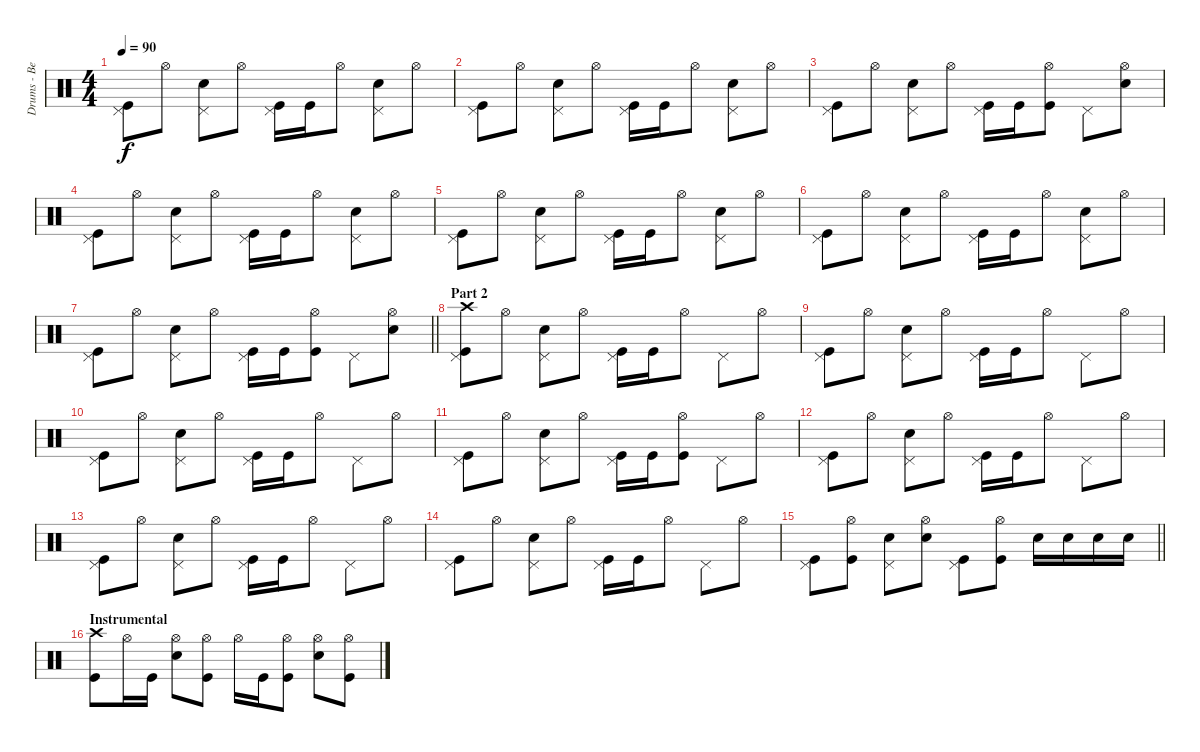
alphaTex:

\track ("Drums - Ben Johnston" "Drums - Be") {instrument percussion}
\staff {score}
\articulation defaults
\ts (4 4)
\tempo 90
\clef neutral
\ks c
("Pedal Hi-Hat (hit)" "Kick (hit)").8{dy f} "Hi-Hat (open)".8 ("Pedal Hi-Hat (hit)" "Snare (hit) 2").8 "Hi-Hat (open)".8 ("Pedal Hi-Hat (hit)" "Kick (hit)").16 "Kick (hit)".16 "Hi-Hat (open)".8 ("Pedal Hi-Hat (hit)" "Snare (hit) 2").8 "Hi-Hat (open)".8 |
("Pedal Hi-Hat (hit)" "Kick (hit)").8 "Hi-Hat (open)".8 ("Pedal Hi-Hat (hit)" "Snare (hit) 2").8 "Hi-Hat (open)".8 ("Pedal Hi-Hat (hit)" "Kick (hit)").16 "Kick (hit)".16 "Hi-Hat (open)".8 ("Pedal Hi-Hat (hit)" "Snare (hit) 2").8 "Hi-Hat (open)".8 |
("Pedal Hi-Hat (hit)" "Kick (hit)").8 "Hi-Hat (open)".8 ("Pedal Hi-Hat (hit)" "Snare (hit) 2").8 "Hi-Hat (open)".8 ("Pedal Hi-Hat (hit)" "Kick (hit)").16 "Kick (hit)".16 ("Hi-Hat (open)" "Kick (hit)").8 "Pedal Hi-Hat (hit)".8 ("Hi-Hat (open)" "Snare (hit) 2").8 |
("Pedal Hi-Hat (hit)" "Kick (hit)").8 "Hi-Hat (open)".8 ("Pedal Hi-Hat (hit)" "Snare (hit) 2").8 "Hi-Hat (open)".8 ("Pedal Hi-Hat (hit)" "Kick (hit)").16 "Kick (hit)".16 "Hi-Hat (open)".8 ("Pedal Hi-Hat (hit)" "Snare (hit) 2").8 "Hi-Hat (open)".8 |
("Pedal Hi-Hat (hit)" "Kick (hit)").8 "Hi-Hat (open)".8 ("Pedal Hi-Hat (hit)" "Snare (hit) 2").8 "Hi-Hat (open)".8 ("Pedal Hi-Hat (hit)" "Kick (hit)").16 "Kick (hit)".16 "Hi-Hat (open)".8 ("Pedal Hi-Hat (hit)" "Snare (hit) 2").8 "Hi-Hat (open)".8 |
("Pedal Hi-Hat (hit)" "Kick (hit)").8 "Hi-Hat (open)".8 ("Pedal Hi-Hat (hit)" "Snare (hit) 2").8 "Hi-Hat (open)".8 ("Pedal Hi-Hat (hit)" "Kick (hit)").16 "Kick (hit)".16 "Hi-Hat (open)".8 ("Pedal Hi-Hat (hit)" "Snare (hit) 2").8 "Hi-Hat (open)".8 |
\barLineRight lightlight
("Pedal Hi-Hat (hit)" "Kick (hit)").8 "Hi-Hat (open)".8 ("Pedal Hi-Hat (hit)" "Snare (hit) 2").8 "Hi-Hat (open)".8 ("Pedal Hi-Hat (hit)" "Kick (hit)").16 "Kick (hit)".16 ("Hi-Hat (open)" "Kick (hit)").8 "Pedal Hi-Hat (hit)".8 ("Hi-Hat (open)" "Snare (hit) 2").8 |
\section ("" "Part 2")
("Crash high (hit)" "Pedal Hi-Hat (hit)" "Kick (hit)").8 "Hi-Hat (open)".8 ("Pedal Hi-Hat (hit)" "Snare (hit) 2").8 "Hi-Hat (open)".8 ("Pedal Hi-Hat (hit)" "Kick (hit)").16 "Kick (hit)".16 "Hi-Hat (open)".8 "Pedal Hi-Hat (hit)".8 "Hi-Hat (open)".8 |
("Pedal Hi-Hat (hit)" "Kick (hit)").8 "Hi-Hat (open)".8 ("Pedal Hi-Hat (hit)" "Snare (hit) 2").8 "Hi-Hat (open)".8 ("Pedal Hi-Hat (hit)" "Kick (hit)").16 "Kick (hit)".16 "Hi-Hat (open)".8 "Pedal Hi-Hat (hit)".8 "Hi-Hat (open)".8 |
("Pedal Hi-Hat (hit)" "Kick (hit)").8 "Hi-Hat (open)".8 ("Pedal Hi-Hat (hit)" "Snare (hit) 2").8 "Hi-Hat (open)".8 ("Pedal Hi-Hat (hit)" "Kick (hit)").16 "Kick (hit)".16 "Hi-Hat (open)".8 "Pedal Hi-Hat (hit)".8 "Hi-Hat (open)".8 |
("Pedal Hi-Hat (hit)" "Kick (hit)").8 "Hi-Hat (open)".8 ("Pedal Hi-Hat (hit)" "Snare (hit) 2").8 "Hi-Hat (open)".8 ("Pedal Hi-Hat (hit)" "Kick (hit)").16 "Kick (hit)".16 ("Hi-Hat (open)" "Kick (hit)").8 "Pedal Hi-Hat (hit)".8 "Hi-Hat (open)".8 |
("Pedal Hi-Hat (hit)" "Kick (hit)").8 "Hi-Hat (open)".8 ("Pedal Hi-Hat (hit)" "Snare (hit) 2").8 "Hi-Hat (open)".8 ("Pedal Hi-Hat (hit)" "Kick (hit)").16 "Kick (hit)".16 "Hi-Hat (open)".8 "Pedal Hi-Hat (hit)".8 "Hi-Hat (open)".8 |
("Pedal Hi-Hat (hit)" "Kick (hit)").8 "Hi-Hat (open)".8 ("Pedal Hi-Hat (hit)" "Snare (hit) 2").8 "Hi-Hat (open)".8 ("Pedal Hi-Hat (hit)" "Kick (hit)").16 "Kick (hit)".16 "Hi-Hat (open)".8 "Pedal Hi-Hat (hit)".8 "Hi-Hat (open)".8 |
("Pedal Hi-Hat (hit)" "Kick (hit)").8 "Hi-Hat (open)".8 ("Pedal Hi-Hat (hit)" "Snare (hit) 2").8 "Hi-Hat (open)".8 ("Pedal Hi-Hat (hit)" "Kick (hit)").16 "Kick (hit)".16 "Hi-Hat (open)".8 "Pedal Hi-Hat (hit)".8 "Hi-Hat (open)".8 |
\barLineRight lightlight
("Pedal Hi-Hat (hit)" "Kick (hit)").8 ("Hi-Hat (open)" "Kick (hit)").8 ("Pedal Hi-Hat (hit)" "Snare (hit) 2").8 ("Hi-Hat (open)" "Snare (hit) 2").8 ("Pedal Hi-Hat (hit)" "Kick (hit)").8 ("Hi-Hat (open)" "Kick (hit)").8 "Snare (hit) 2".16 "Snare (hit) 2".16 "Snare (hit) 2".16 "Snare (hit) 2".16 |
\section ("" "Instrumental")
("Crash high (hit)" "Kick (hit)").8 "Hi-Hat (open)".16 "Kick (hit)".16 ("Hi-Hat (open)" "Snare (hit) 2").8 ("Hi-Hat (open)" "Kick (hit)").8 "Hi-Hat (open)".16 "Kick (hit)".16 ("Hi-Hat (open)" "Kick (hit)").8 ("Hi-Hat (open)" "Snare (hit) 2").8 ("Hi-Hat (open)" "Kick (hit)").8
